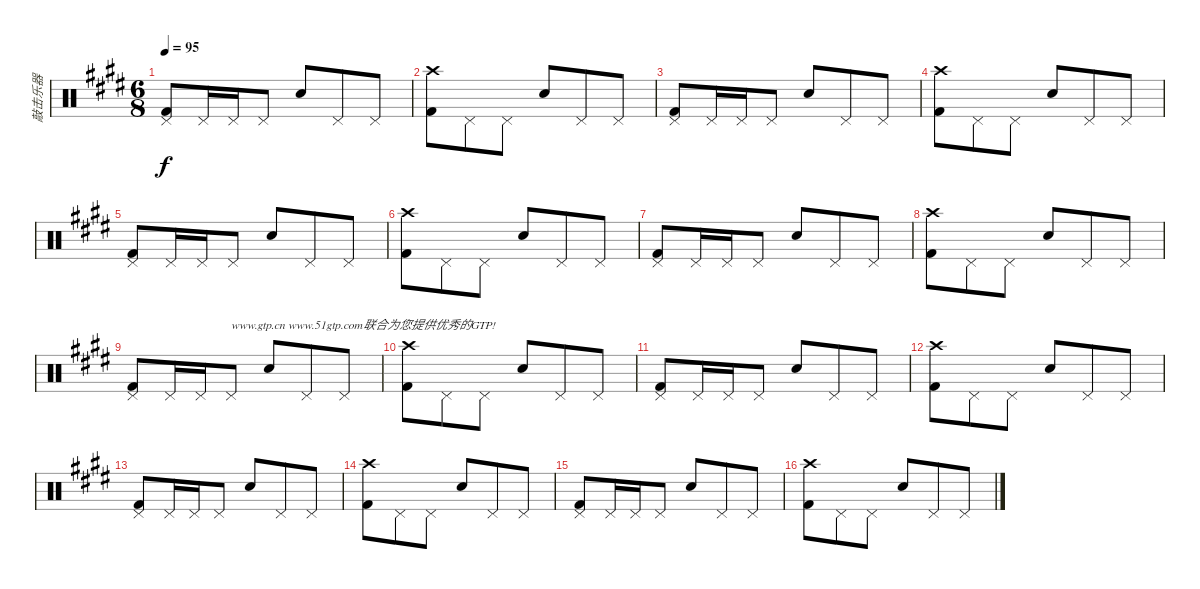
\track ("敲击乐器" "敲击乐器") {instrument percussion}
\staff {score}
\articulation defaults
\ts (6 8)
\tempo 95
\clef neutral
\ks e
("Pedal Hi-Hat (hit)" "Kick (hit) 2").8{dy f} "Pedal Hi-Hat (hit)".16 "Pedal Hi-Hat (hit)".16 "Pedal Hi-Hat (hit)".8 "Snare (hit) 2".8 "Pedal Hi-Hat (hit)".8 "Pedal Hi-Hat (hit)".8 |
("Crash high (hit)" "Kick (hit) 2").8 "Pedal Hi-Hat (hit)".8 "Pedal Hi-Hat (hit)".8 "Snare (hit) 2".8 "Pedal Hi-Hat (hit)".8 "Pedal Hi-Hat (hit)".8 |
("Pedal Hi-Hat (hit)" "Kick (hit) 2").8 "Pedal Hi-Hat (hit)".16 "Pedal Hi-Hat (hit)".16 "Pedal Hi-Hat (hit)".8 "Snare (hit) 2".8 "Pedal Hi-Hat (hit)".8 "Pedal Hi-Hat (hit)".8 |
("Crash high (hit)" "Kick (hit) 2").8 "Pedal Hi-Hat (hit)".8 "Pedal Hi-Hat (hit)".8 "Snare (hit) 2".8 "Pedal Hi-Hat (hit)".8 "Pedal Hi-Hat (hit)".8 |
("Pedal Hi-Hat (hit)" "Kick (hit) 2").8 "Pedal Hi-Hat (hit)".16 "Pedal Hi-Hat (hit)".16 "Pedal Hi-Hat (hit)".8 "Snare (hit) 2".8 "Pedal Hi-Hat (hit)".8 "Pedal Hi-Hat (hit)".8 |
("Crash high (hit)" "Kick (hit) 2").8 "Pedal Hi-Hat (hit)".8 "Pedal Hi-Hat (hit)".8 "Snare (hit) 2".8 "Pedal Hi-Hat (hit)".8 "Pedal Hi-Hat (hit)".8 |
("Pedal Hi-Hat (hit)" "Kick (hit) 2").8 "Pedal Hi-Hat (hit)".16 "Pedal Hi-Hat (hit)".16 "Pedal Hi-Hat (hit)".8 "Snare (hit) 2".8 "Pedal Hi-Hat (hit)".8 "Pedal Hi-Hat (hit)".8 |
("Crash high (hit)" "Kick (hit) 2").8 "Pedal Hi-Hat (hit)".8 "Pedal Hi-Hat (hit)".8 "Snare (hit) 2".8 "Pedal Hi-Hat (hit)".8 "Pedal Hi-Hat (hit)".8 |
("Pedal Hi-Hat (hit)" "Kick (hit) 2").8 "Pedal Hi-Hat (hit)".16 "Pedal Hi-Hat (hit)".16 "Pedal Hi-Hat (hit)".8{txt "www.gtp.cn www.51gtp.com联合为您提供优秀的GTP!"} "Snare (hit) 2".8 "Pedal Hi-Hat (hit)".8 "Pedal Hi-Hat (hit)".8 |
("Crash high (hit)" "Kick (hit) 2").8 "Pedal Hi-Hat (hit)".8 "Pedal Hi-Hat (hit)".8 "Snare (hit) 2".8 "Pedal Hi-Hat (hit)".8 "Pedal Hi-Hat (hit)".8 |
("Pedal Hi-Hat (hit)" "Kick (hit) 2").8 "Pedal Hi-Hat (hit)".16 "Pedal Hi-Hat (hit)".16 "Pedal Hi-Hat (hit)".8 "Snare (hit) 2".8 "Pedal Hi-Hat (hit)".8 "Pedal Hi-Hat (hit)".8 |
("Crash high (hit)" "Kick (hit) 2").8 "Pedal Hi-Hat (hit)".8 "Pedal Hi-Hat (hit)".8 "Snare (hit) 2".8 "Pedal Hi-Hat (hit)".8 "Pedal Hi-Hat (hit)".8 |
("Pedal Hi-Hat (hit)" "Kick (hit) 2").8 "Pedal Hi-Hat (hit)".16 "Pedal Hi-Hat (hit)".16 "Pedal Hi-Hat (hit)".8 "Snare (hit) 2".8 "Pedal Hi-Hat (hit)".8 "Pedal Hi-Hat (hit)".8 |
("Crash high (hit)" "Kick (hit) 2").8 "Pedal Hi-Hat (hit)".8 "Pedal Hi-Hat (hit)".8 "Snare (hit) 2".8 "Pedal Hi-Hat (hit)".8 "Pedal Hi-Hat (hit)".8 |
("Pedal Hi-Hat (hit)" "Kick (hit) 2").8 "Pedal Hi-Hat (hit)".16 "Pedal Hi-Hat (hit)".16 "Pedal Hi-Hat (hit)".8 "Snare (hit) 2".8 "Pedal Hi-Hat (hit)".8 "Pedal Hi-Hat (hit)".8 |
("Crash high (hit)" "Kick (hit) 2").8 "Pedal Hi-Hat (hit)".8 "Pedal Hi-Hat (hit)".8 "Snare (hit) 2".8 "Pedal Hi-Hat (hit)".8 "Pedal Hi-Hat (hit)".8
